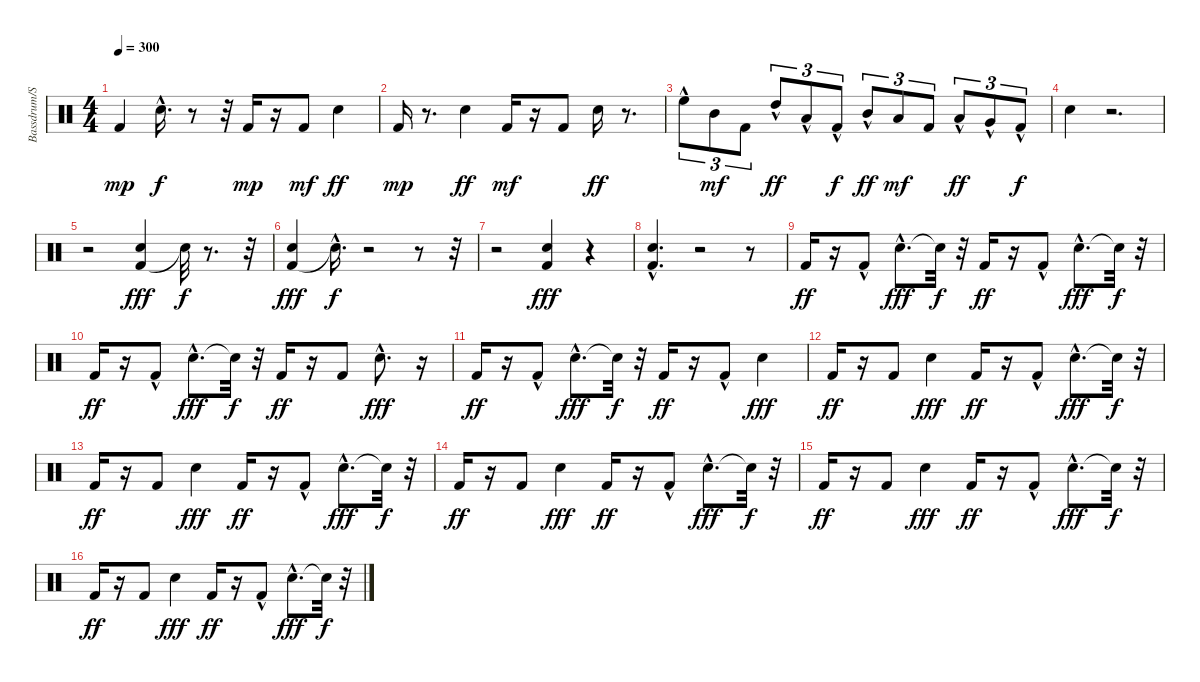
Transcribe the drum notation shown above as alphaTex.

\track ("Bassdrum/Snare" "Bassdrum/S") {instrument percussion}
\staff {score}
\articulation defaults
\ts (4 4)
\tempo 300
\clef neutral
\ks c "Kick (hit) 2".4{dy mp} "Snare (hit) 2"{hac}.16{d dy f}
r.8 r.32 "Kick (hit) 2".16{dy mp} r.16 "Kick (hit) 2".8{dy mf} "Snare (hit) 2".4{dy ff} |
"Kick (hit) 2".16{dy mp} r.8{d} "Snare (hit) 2".4{dy ff} "Kick (hit) 2".16{dy mf} r.16 "Kick (hit) 2".8 "Snare (hit) 2".16{dy ff} r.8{d} |
"High Floor Tom (hit)"{hac}.8{tu (3 2)} "Mid Tom (hit)".8{tu (3 2) dy mf} "Kick (hit) 2".8{tu (3 2)} "High Tom (hit)"{hac}.8{tu (3 2) dy ff} "Low Tom (hit)"{hac}.8{tu (3 2)} "Kick (hit) 2"{hac}.8{tu (3 2) dy f} "Mid Tom (hit)"{hac}.8{tu (3 2) dy ff} "Low Tom (hit)".8{tu (3 2) dy mf} "Kick (hit) 2".8{tu (3 2)} "Low Tom (hit)"{hac}.8{tu (3 2) dy ff} "Very Low Tom (hit)"{hac}.8{tu (3 2)} "Kick (hit) 2"{hac}.8{tu (3 2) dy f} |
"Snare (hit) 2".4 r.2{d} |
r.2 ("Kick (hit) 2" "Snare (hit) 2").4{dy fff} "Snare (hit)"{t}.32{dy f} r.8{d} r.32 |
("Kick (hit) 2" "Snare (hit) 2").4{dy fff} "Snare (hit)"{hac t}.16{d dy f} r.2 r.8 r.32 |
r.2 ("Kick (hit) 2" "Snare (hit) 2").4{dy fff} r.4 |
("Kick (hit) 2"{hac} "Snare (hit) 2").4{d} r.2 r.8 |
"Kick (hit) 2".16{dy ff} r.16 "Kick (hit) 2"{hac}.8 "Snare (hit) 2"{hac}.8{d dy fff} "Snare (hit)"{t}.32{dy f} r.32 "Kick (hit) 2".16{dy ff} r.16 "Kick (hit) 2"{hac}.8 "Snare (hit) 2"{hac}.8{d dy fff} "Snare (hit)"{t}.32{dy f} r.32 |
"Kick (hit) 2".16{dy ff} r.16 "Kick (hit) 2"{hac}.8 "Snare (hit) 2"{hac}.8{d dy fff} "Snare (hit)"{t}.32{dy f} r.32 "Kick (hit) 2".16{dy ff} r.16 "Kick (hit) 2".8 "Snare (hit) 2"{hac}.8{d dy fff} r.16 |
"Kick (hit) 2".16{dy ff} r.16 "Kick (hit) 2"{hac}.8 "Snare (hit) 2"{hac}.8{d dy fff} "Snare (hit)"{t}.32{dy f} r.32 "Kick (hit) 2".16{dy ff} r.16 "Kick (hit) 2"{hac}.8 "Snare (hit) 2".4{dy fff} |
"Kick (hit) 2".16{dy ff} r.16 "Kick (hit) 2".8 "Snare (hit) 2".4{dy fff} "Kick (hit) 2".16{dy ff} r.16 "Kick (hit) 2"{hac}.8 "Snare (hit) 2"{hac}.8{d dy fff} "Snare (hit)"{t}.32{dy f} r.32 |
"Kick (hit) 2".16{dy ff} r.16 "Kick (hit) 2".8 "Snare (hit) 2".4{dy fff} "Kick (hit) 2".16{dy ff} r.16 "Kick (hit) 2"{hac}.8 "Snare (hit) 2"{hac}.8{d dy fff} "Snare (hit)"{t}.32{dy f} r.32 |
"Kick (hit) 2".16{dy ff} r.16 "Kick (hit) 2".8 "Snare (hit) 2".4{dy fff} "Kick (hit) 2".16{dy ff} r.16 "Kick (hit) 2"{hac}.8 "Snare (hit) 2"{hac}.8{d dy fff} "Snare (hit)"{t}.32{dy f} r.32 |
"Kick (hit) 2".16{dy ff} r.16 "Kick (hit) 2".8 "Snare (hit) 2".4{dy fff} "Kick (hit) 2".16{dy ff} r.16 "Kick (hit) 2"{hac}.8 "Snare (hit) 2"{hac}.8{d dy fff} "Snare (hit)"{t}.32{dy f} r.32 |
"Kick (hit) 2".16{dy ff} r.16 "Kick (hit) 2".8 "Snare (hit) 2".4{dy fff} "Kick (hit) 2".16{dy ff} r.16 "Kick (hit) 2"{hac}.8 "Snare (hit) 2"{hac}.8{d dy fff} "Snare (hit)"{t}.32{dy f} r.32
